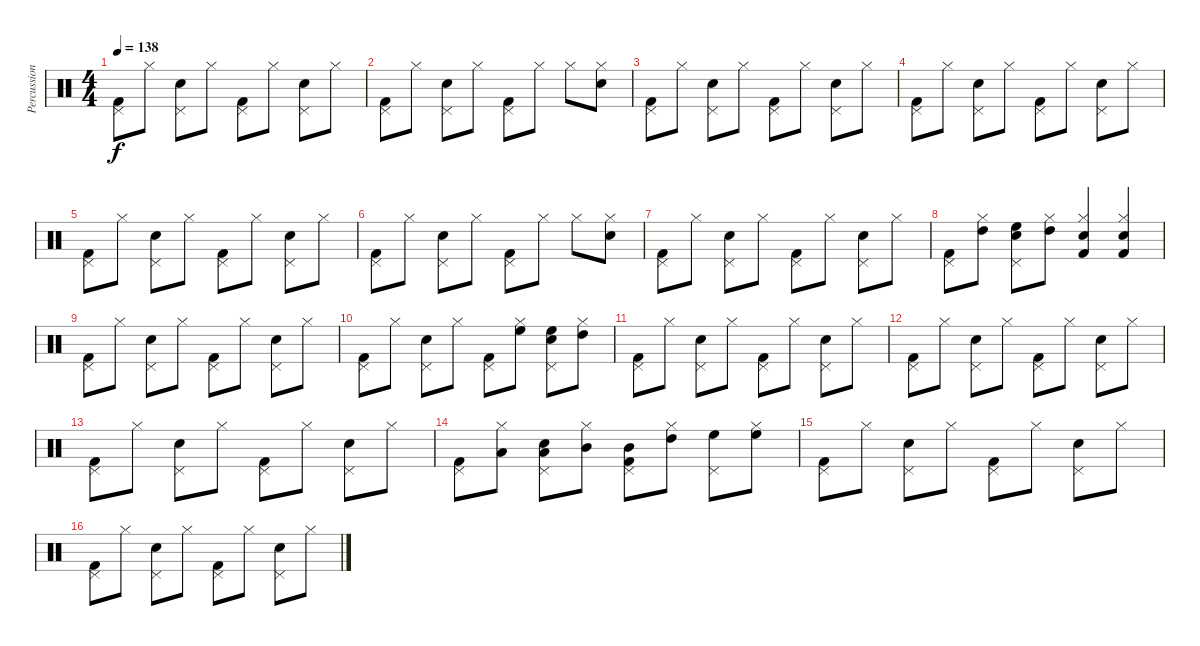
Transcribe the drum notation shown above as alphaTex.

\track ("Percussions" "Percussion") {instrument percussion}
\staff {score}
\articulation defaults
\ts (4 4)
\tempo 138
\clef neutral
\ks c
("Pedal Hi-Hat (hit)" "Kick (hit) 2").8{dy f} "Hi-Hat (closed)".8 ("Pedal Hi-Hat (hit)" "Snare (hit) 2").8 "Hi-Hat (closed)".8 ("Pedal Hi-Hat (hit)" "Kick (hit) 2").8 "Hi-Hat (closed)".8 ("Pedal Hi-Hat (hit)" "Snare (hit) 2").8 "Hi-Hat (closed)".8 |
("Pedal Hi-Hat (hit)" "Kick (hit) 2").8 "Hi-Hat (closed)".8 ("Pedal Hi-Hat (hit)" "Snare (hit) 2").8 "Hi-Hat (closed)".8 ("Pedal Hi-Hat (hit)" "Kick (hit) 2").8 "Hi-Hat (closed)".8 "Hi-Hat (closed)".8 ("Hi-Hat (closed)" "Snare (hit) 2").8 |
("Pedal Hi-Hat (hit)" "Kick (hit) 2").8 "Hi-Hat (closed)".8 ("Pedal Hi-Hat (hit)" "Snare (hit) 2").8 "Hi-Hat (closed)".8 ("Pedal Hi-Hat (hit)" "Kick (hit) 2").8 "Hi-Hat (closed)".8 ("Pedal Hi-Hat (hit)" "Snare (hit) 2").8 "Hi-Hat (closed)".8 |
("Pedal Hi-Hat (hit)" "Kick (hit) 2").8 "Hi-Hat (closed)".8 ("Pedal Hi-Hat (hit)" "Snare (hit) 2").8 "Hi-Hat (closed)".8 ("Pedal Hi-Hat (hit)" "Kick (hit) 2").8 "Hi-Hat (closed)".8 ("Pedal Hi-Hat (hit)" "Snare (hit) 2").8 "Hi-Hat (closed)".8 |
("Pedal Hi-Hat (hit)" "Kick (hit) 2").8 "Hi-Hat (closed)".8 ("Pedal Hi-Hat (hit)" "Snare (hit) 2").8 "Hi-Hat (closed)".8 ("Pedal Hi-Hat (hit)" "Kick (hit) 2").8 "Hi-Hat (closed)".8 ("Pedal Hi-Hat (hit)" "Snare (hit) 2").8 "Hi-Hat (closed)".8 |
("Pedal Hi-Hat (hit)" "Kick (hit) 2").8 "Hi-Hat (closed)".8 ("Pedal Hi-Hat (hit)" "Snare (hit) 2").8 "Hi-Hat (closed)".8 ("Pedal Hi-Hat (hit)" "Kick (hit) 2").8 "Hi-Hat (closed)".8 "Hi-Hat (closed)".8 ("Hi-Hat (closed)" "Snare (hit) 2").8 |
("Pedal Hi-Hat (hit)" "Kick (hit) 2").8 "Hi-Hat (closed)".8 ("Pedal Hi-Hat (hit)" "Snare (hit) 2").8 "Hi-Hat (closed)".8 ("Pedal Hi-Hat (hit)" "Kick (hit) 2").8 "Hi-Hat (closed)".8 ("Pedal Hi-Hat (hit)" "Snare (hit) 2").8 "Hi-Hat (closed)".8 |
("Pedal Hi-Hat (hit)" "Kick (hit) 2").8 ("Hi-Hat (closed)" "High Tom (hit)").8 ("Pedal Hi-Hat (hit)" "High Floor Tom (hit)" "Snare (hit) 2").8 ("Hi-Hat (closed)" "High Tom (hit)").8 ("Hi-Hat (closed)" "Snare (hit) 2" "Kick (hit) 2").4 ("Hi-Hat (closed)" "Snare (hit) 2" "Kick (hit) 2").4 |
("Pedal Hi-Hat (hit)" "Kick (hit) 2").8 "Hi-Hat (closed)".8 ("Pedal Hi-Hat (hit)" "Snare (hit) 2").8 "Hi-Hat (closed)".8 ("Pedal Hi-Hat (hit)" "Kick (hit) 2").8 "Hi-Hat (closed)".8 ("Pedal Hi-Hat (hit)" "Snare (hit) 2").8 "Hi-Hat (closed)".8 |
("Pedal Hi-Hat (hit)" "Kick (hit) 2").8 "Hi-Hat (closed)".8 ("Pedal Hi-Hat (hit)" "Snare (hit) 2").8 "Hi-Hat (closed)".8 ("Pedal Hi-Hat (hit)" "Kick (hit) 2").8 ("Hi-Hat (closed)" "High Floor Tom (hit)").8 ("Pedal Hi-Hat (hit)" "High Floor Tom (hit)" "Snare (hit) 2").8 ("Hi-Hat (closed)" "High Tom (hit)").8 |
("Pedal Hi-Hat (hit)" "Kick (hit) 2").8 "Hi-Hat (closed)".8 ("Pedal Hi-Hat (hit)" "Snare (hit) 2").8 "Hi-Hat (closed)".8 ("Pedal Hi-Hat (hit)" "Kick (hit) 2").8 "Hi-Hat (closed)".8 ("Pedal Hi-Hat (hit)" "Snare (hit) 2").8 "Hi-Hat (closed)".8 |
("Pedal Hi-Hat (hit)" "Kick (hit) 2").8 "Hi-Hat (closed)".8 ("Pedal Hi-Hat (hit)" "Snare (hit) 2").8 "Hi-Hat (closed)".8 ("Pedal Hi-Hat (hit)" "Kick (hit) 2").8 "Hi-Hat (closed)".8 ("Pedal Hi-Hat (hit)" "Snare (hit) 2").8 "Hi-Hat (closed)".8 |
("Pedal Hi-Hat (hit)" "Kick (hit) 2").8 "Hi-Hat (closed)".8 ("Pedal Hi-Hat (hit)" "Snare (hit) 2").8 "Hi-Hat (closed)".8 ("Pedal Hi-Hat (hit)" "Kick (hit) 2").8 "Hi-Hat (closed)".8 ("Pedal Hi-Hat (hit)" "Snare (hit) 2").8 "Hi-Hat (closed)".8 |
("Pedal Hi-Hat (hit)" "Kick (hit) 2").8 ("Hi-Hat (closed)" "Low Tom (hit)").8 ("Pedal Hi-Hat (hit)" "Low Tom (hit)" "Snare (hit) 2").8 ("Hi-Hat (closed)" "Mid Tom (hit)").8 ("Pedal Hi-Hat (hit)" "Mid Tom (hit)" "Kick (hit) 2").8 ("Hi-Hat (closed)" "High Tom (hit)").8 ("Pedal Hi-Hat (hit)" "High Floor Tom (hit)").8 ("Hi-Hat (closed)" "High Floor Tom (hit)").8 |
("Pedal Hi-Hat (hit)" "Kick (hit) 2").8 "Hi-Hat (closed)".8 ("Pedal Hi-Hat (hit)" "Snare (hit) 2").8 "Hi-Hat (closed)".8 ("Pedal Hi-Hat (hit)" "Kick (hit) 2").8 "Hi-Hat (closed)".8 ("Pedal Hi-Hat (hit)" "Snare (hit) 2").8 "Hi-Hat (closed)".8 |
("Pedal Hi-Hat (hit)" "Kick (hit) 2").8 "Hi-Hat (closed)".8 ("Pedal Hi-Hat (hit)" "Snare (hit) 2").8 "Hi-Hat (closed)".8 ("Pedal Hi-Hat (hit)" "Kick (hit) 2").8 "Hi-Hat (closed)".8 ("Pedal Hi-Hat (hit)" "Snare (hit) 2").8 "Hi-Hat (closed)".8
